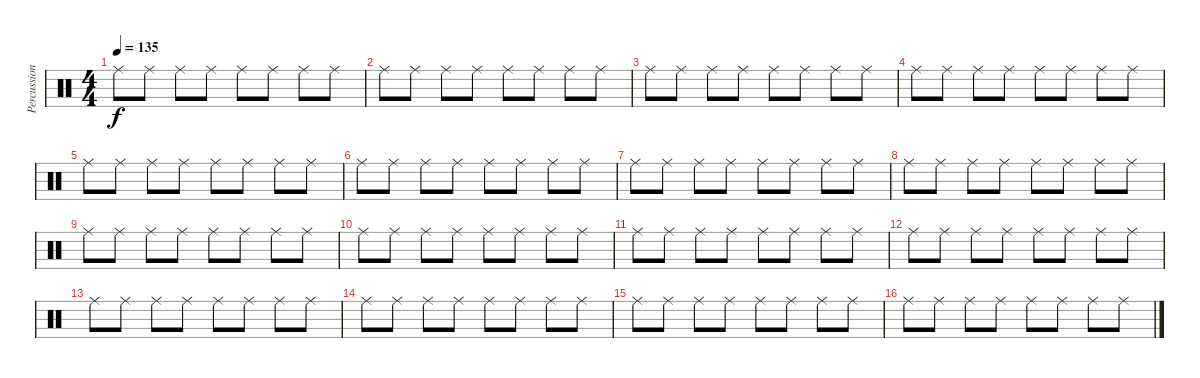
\track ("Percussion" "Percussion") {instrument percussion}
\staff {score}
\articulation defaults
\ts (4 4)
\tempo 135
\clef neutral
\ks c "Ride (middle)".8{dy f} "Ride (middle)".8 "Ride (middle)".8 "Ride (middle)".8 "Ride (middle)".8 "Ride (middle)".8 "Ride (middle)".8 "Ride (middle)".8
|
"Ride (middle)".8 "Ride (middle)".8 "Ride (middle)".8 "Ride (middle)".8 "Ride (middle)".8 "Ride (middle)".8 "Ride (middle)".8 "Ride (middle)".8 |
"Ride (middle)".8 "Ride (middle)".8 "Ride (middle)".8 "Ride (middle)".8 "Ride (middle)".8 "Ride (middle)".8 "Ride (middle)".8 "Ride (middle)".8 |
"Ride (middle)".8 "Ride (middle)".8 "Ride (middle)".8 "Ride (middle)".8 "Ride (middle)".8 "Ride (middle)".8 "Ride (middle)".8 "Ride (middle)".8 |
"Ride (middle)".8 "Ride (middle)".8 "Ride (middle)".8 "Ride (middle)".8 "Ride (middle)".8 "Ride (middle)".8 "Ride (middle)".8 "Ride (middle)".8 |
"Ride (middle)".8 "Ride (middle)".8 "Ride (middle)".8 "Ride (middle)".8 "Ride (middle)".8 "Ride (middle)".8 "Ride (middle)".8 "Ride (middle)".8 |
"Ride (middle)".8 "Ride (middle)".8 "Ride (middle)".8 "Ride (middle)".8 "Ride (middle)".8 "Ride (middle)".8 "Ride (middle)".8 "Ride (middle)".8 |
"Ride (middle)".8 "Ride (middle)".8 "Ride (middle)".8 "Ride (middle)".8 "Ride (middle)".8 "Ride (middle)".8 "Ride (middle)".8 "Ride (middle)".8 |
"Ride (middle)".8 "Ride (middle)".8 "Ride (middle)".8 "Ride (middle)".8 "Ride (middle)".8 "Ride (middle)".8 "Ride (middle)".8 "Ride (middle)".8 |
"Ride (middle)".8 "Ride (middle)".8 "Ride (middle)".8 "Ride (middle)".8 "Ride (middle)".8 "Ride (middle)".8 "Ride (middle)".8 "Ride (middle)".8 |
"Ride (middle)".8 "Ride (middle)".8 "Ride (middle)".8 "Ride (middle)".8 "Ride (middle)".8 "Ride (middle)".8 "Ride (middle)".8 "Ride (middle)".8 |
"Ride (middle)".8 "Ride (middle)".8 "Ride (middle)".8 "Ride (middle)".8 "Ride (middle)".8 "Ride (middle)".8 "Ride (middle)".8 "Ride (middle)".8 |
"Ride (middle)".8 "Ride (middle)".8 "Ride (middle)".8 "Ride (middle)".8 "Ride (middle)".8 "Ride (middle)".8 "Ride (middle)".8 "Ride (middle)".8 |
"Ride (middle)".8 "Ride (middle)".8 "Ride (middle)".8 "Ride (middle)".8 "Ride (middle)".8 "Ride (middle)".8 "Ride (middle)".8 "Ride (middle)".8 |
"Ride (middle)".8 "Ride (middle)".8 "Ride (middle)".8 "Ride (middle)".8 "Ride (middle)".8 "Ride (middle)".8 "Ride (middle)".8 "Ride (middle)".8 |
"Ride (middle)".8 "Ride (middle)".8 "Ride (middle)".8 "Ride (middle)".8 "Ride (middle)".8 "Ride (middle)".8 "Ride (middle)".8 "Ride (middle)".8
